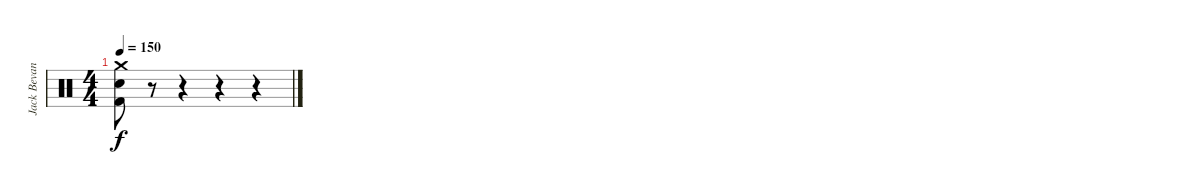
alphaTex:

\track ("Jack Bevan (Percussion)" "Jack Bevan") {instrument percussion bank 255}
\staff {score}
\articulation defaults
\ts (4 4)
\tempo 150
\clef neutral
\ks c
("Crash medium (hit)" "Snare (hit) 2" "Kick (hit) 2").8{dy f} r.8 r.4 r.4 r.4
